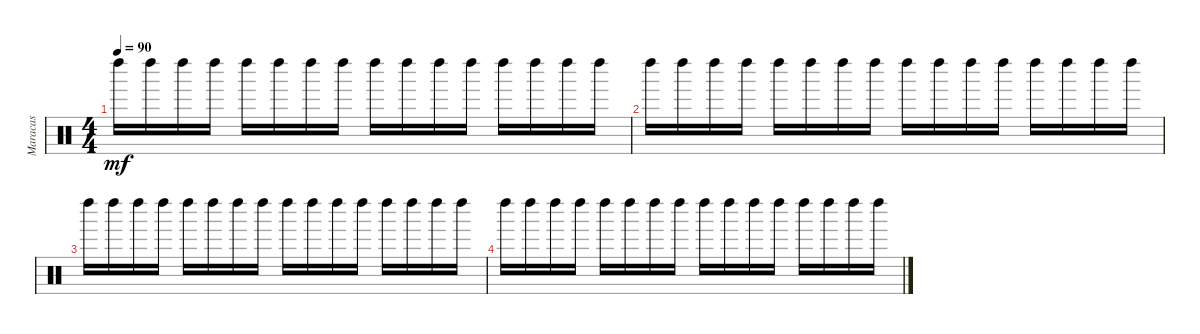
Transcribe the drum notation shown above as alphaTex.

\track ("Maracas" "Maracas") {instrument percussion}
\staff {score}
\articulation defaults
\ts (4 4)
\tempo 90
\clef neutral
\ks c "Left Maraca (hit)".16{dy mf volume 6} "Left Maraca (hit)".16 "Left Maraca (hit)".16 "Left Maraca (hit)".16 "Left Maraca (hit)".16 "Left Maraca (hit)".16 "Left Maraca (hit)".16 "Left Maraca (hit)".16 "Left Maraca (hit)".16 "Left Maraca (hit)".16 "Left Maraca (hit)".16 "Left Maraca (hit)".16 "Left Maraca (hit)".16 "Left Maraca (hit)".16 "Left Maraca (hit)".16 "Left Maraca (hit)".16
|
"Left Maraca (hit)".16 "Left Maraca (hit)".16 "Left Maraca (hit)".16 "Left Maraca (hit)".16 "Left Maraca (hit)".16 "Left Maraca (hit)".16 "Left Maraca (hit)".16 "Left Maraca (hit)".16 "Left Maraca (hit)".16 "Left Maraca (hit)".16 "Left Maraca (hit)".16 "Left Maraca (hit)".16 "Left Maraca (hit)".16 "Left Maraca (hit)".16 "Left Maraca (hit)".16 "Left Maraca (hit)".16 |
"Left Maraca (hit)".16{volume 4} "Left Maraca (hit)".16 "Left Maraca (hit)".16 "Left Maraca (hit)".16 "Left Maraca (hit)".16 "Left Maraca (hit)".16 "Left Maraca (hit)".16 "Left Maraca (hit)".16 "Left Maraca (hit)".16 "Left Maraca (hit)".16 "Left Maraca (hit)".16 "Left Maraca (hit)".16 "Left Maraca (hit)".16 "Left Maraca (hit)".16 "Left Maraca (hit)".16 "Left Maraca (hit)".16 |
"Left Maraca (hit)".16 "Left Maraca (hit)".16 "Left Maraca (hit)".16 "Left Maraca (hit)".16 "Left Maraca (hit)".16 "Left Maraca (hit)".16 "Left Maraca (hit)".16 "Left Maraca (hit)".16 "Left Maraca (hit)".16 "Left Maraca (hit)".16 "Left Maraca (hit)".16 "Left Maraca (hit)".16 "Left Maraca (hit)".16 "Left Maraca (hit)".16 "Left Maraca (hit)".16 "Left Maraca (hit)".16
